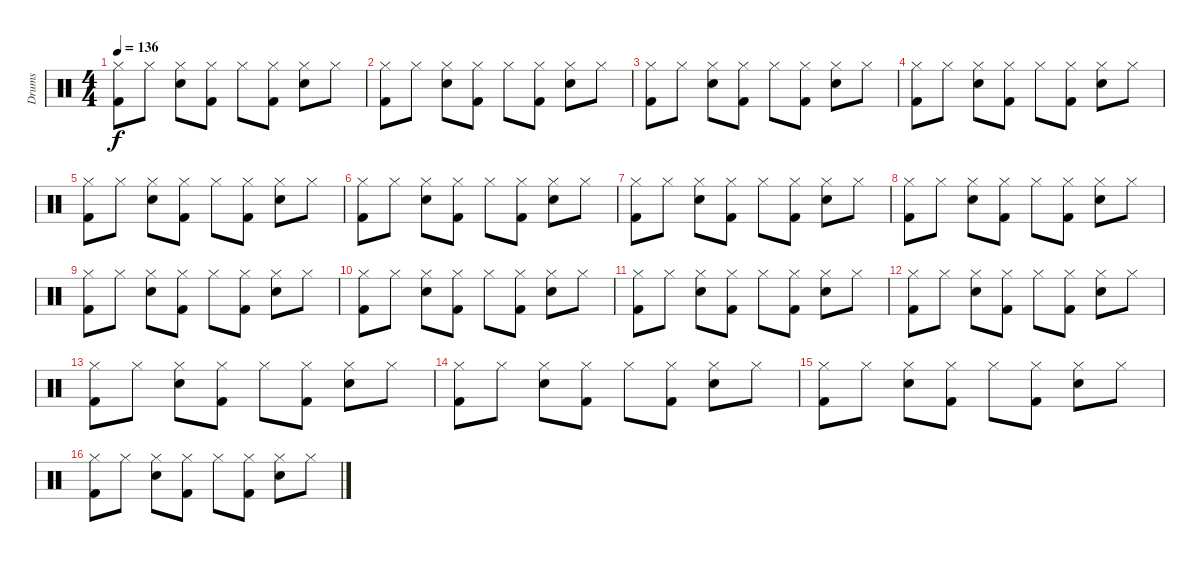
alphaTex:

\track ("Drums" "Drums") {instrument percussion}
\staff {score}
\articulation defaults
\ts (4 4)
\tempo 136
\clef neutral
\ks c
("Hi-Hat (closed)" "Kick (hit) 2").8{dy f} "Hi-Hat (closed)".8 ("Hi-Hat (closed)" "Snare (hit) 2").8 ("Hi-Hat (closed)" "Kick (hit) 2").8 "Hi-Hat (closed)".8 ("Hi-Hat (closed)" "Kick (hit) 2").8 ("Hi-Hat (closed)" "Snare (hit) 2").8 "Hi-Hat (closed)".8 |
("Hi-Hat (closed)" "Kick (hit) 2").8 "Hi-Hat (closed)".8 ("Hi-Hat (closed)" "Snare (hit) 2").8 ("Hi-Hat (closed)" "Kick (hit) 2").8 "Hi-Hat (closed)".8 ("Hi-Hat (closed)" "Kick (hit) 2").8 ("Hi-Hat (closed)" "Snare (hit) 2").8 "Hi-Hat (closed)".8 |
("Hi-Hat (closed)" "Kick (hit) 2").8 "Hi-Hat (closed)".8 ("Hi-Hat (closed)" "Snare (hit) 2").8 ("Hi-Hat (closed)" "Kick (hit) 2").8 "Hi-Hat (closed)".8 ("Hi-Hat (closed)" "Kick (hit) 2").8 ("Hi-Hat (closed)" "Snare (hit) 2").8 "Hi-Hat (closed)".8 |
("Hi-Hat (closed)" "Kick (hit) 2").8 "Hi-Hat (closed)".8 ("Hi-Hat (closed)" "Snare (hit) 2").8 ("Hi-Hat (closed)" "Kick (hit) 2").8 "Hi-Hat (closed)".8 ("Hi-Hat (closed)" "Kick (hit) 2").8 ("Hi-Hat (closed)" "Snare (hit) 2").8 "Hi-Hat (closed)".8 |
("Hi-Hat (closed)" "Kick (hit) 2").8 "Hi-Hat (closed)".8 ("Hi-Hat (closed)" "Snare (hit) 2").8 ("Hi-Hat (closed)" "Kick (hit) 2").8 "Hi-Hat (closed)".8 ("Hi-Hat (closed)" "Kick (hit) 2").8 ("Hi-Hat (closed)" "Snare (hit) 2").8 "Hi-Hat (closed)".8 |
("Hi-Hat (closed)" "Kick (hit) 2").8 "Hi-Hat (closed)".8 ("Hi-Hat (closed)" "Snare (hit) 2").8 ("Hi-Hat (closed)" "Kick (hit) 2").8 "Hi-Hat (closed)".8 ("Hi-Hat (closed)" "Kick (hit) 2").8 ("Hi-Hat (closed)" "Snare (hit) 2").8 "Hi-Hat (closed)".8 |
("Hi-Hat (closed)" "Kick (hit) 2").8 "Hi-Hat (closed)".8 ("Hi-Hat (closed)" "Snare (hit) 2").8 ("Hi-Hat (closed)" "Kick (hit) 2").8 "Hi-Hat (closed)".8 ("Hi-Hat (closed)" "Kick (hit) 2").8 ("Hi-Hat (closed)" "Snare (hit) 2").8 "Hi-Hat (closed)".8 |
("Hi-Hat (closed)" "Kick (hit) 2").8 "Hi-Hat (closed)".8 ("Hi-Hat (closed)" "Snare (hit) 2").8 ("Hi-Hat (closed)" "Kick (hit) 2").8 "Hi-Hat (closed)".8 ("Hi-Hat (closed)" "Kick (hit) 2").8 ("Hi-Hat (closed)" "Snare (hit) 2").8 "Hi-Hat (closed)".8 |
("Hi-Hat (closed)" "Kick (hit) 2").8 "Hi-Hat (closed)".8 ("Hi-Hat (closed)" "Snare (hit) 2").8 ("Hi-Hat (closed)" "Kick (hit) 2").8 "Hi-Hat (closed)".8 ("Hi-Hat (closed)" "Kick (hit) 2").8 ("Hi-Hat (closed)" "Snare (hit) 2").8 "Hi-Hat (closed)".8 |
("Hi-Hat (closed)" "Kick (hit) 2").8 "Hi-Hat (closed)".8 ("Hi-Hat (closed)" "Snare (hit) 2").8 ("Hi-Hat (closed)" "Kick (hit) 2").8 "Hi-Hat (closed)".8 ("Hi-Hat (closed)" "Kick (hit) 2").8 ("Hi-Hat (closed)" "Snare (hit) 2").8 "Hi-Hat (closed)".8 |
("Hi-Hat (closed)" "Kick (hit) 2").8 "Hi-Hat (closed)".8 ("Hi-Hat (closed)" "Snare (hit) 2").8 ("Hi-Hat (closed)" "Kick (hit) 2").8 "Hi-Hat (closed)".8 ("Hi-Hat (closed)" "Kick (hit) 2").8 ("Hi-Hat (closed)" "Snare (hit) 2").8 "Hi-Hat (closed)".8 |
("Hi-Hat (closed)" "Kick (hit) 2").8 "Hi-Hat (closed)".8 ("Hi-Hat (closed)" "Snare (hit) 2").8 ("Hi-Hat (closed)" "Kick (hit) 2").8 "Hi-Hat (closed)".8 ("Hi-Hat (closed)" "Kick (hit) 2").8 ("Hi-Hat (closed)" "Snare (hit) 2").8 "Hi-Hat (closed)".8 |
("Hi-Hat (closed)" "Kick (hit) 2").8 "Hi-Hat (closed)".8 ("Hi-Hat (closed)" "Snare (hit) 2").8 ("Hi-Hat (closed)" "Kick (hit) 2").8 "Hi-Hat (closed)".8 ("Hi-Hat (closed)" "Kick (hit) 2").8 ("Hi-Hat (closed)" "Snare (hit) 2").8 "Hi-Hat (closed)".8 |
("Hi-Hat (closed)" "Kick (hit) 2").8 "Hi-Hat (closed)".8 ("Hi-Hat (closed)" "Snare (hit) 2").8 ("Hi-Hat (closed)" "Kick (hit) 2").8 "Hi-Hat (closed)".8 ("Hi-Hat (closed)" "Kick (hit) 2").8 ("Hi-Hat (closed)" "Snare (hit) 2").8 "Hi-Hat (closed)".8 |
("Hi-Hat (closed)" "Kick (hit) 2").8 "Hi-Hat (closed)".8 ("Hi-Hat (closed)" "Snare (hit) 2").8 ("Hi-Hat (closed)" "Kick (hit) 2").8 "Hi-Hat (closed)".8 ("Hi-Hat (closed)" "Kick (hit) 2").8 ("Hi-Hat (closed)" "Snare (hit) 2").8 "Hi-Hat (closed)".8 |
("Hi-Hat (closed)" "Kick (hit) 2").8 "Hi-Hat (closed)".8 ("Hi-Hat (closed)" "Snare (hit) 2").8 ("Hi-Hat (closed)" "Kick (hit) 2").8 "Hi-Hat (closed)".8 ("Hi-Hat (closed)" "Kick (hit) 2").8 ("Hi-Hat (closed)" "Snare (hit) 2").8 "Hi-Hat (closed)".8
